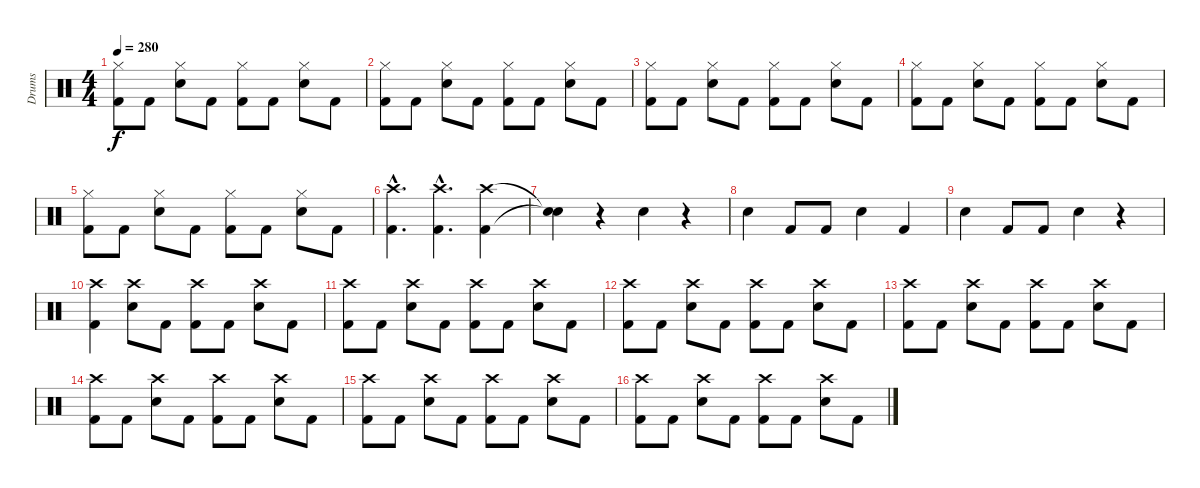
\track ("Drums" "Drums") {instrument percussion}
\staff {score}
\articulation defaults
\ts (4 4)
\tempo 280
\clef neutral
\ks c
("Hi-Hat (closed)" "Kick (hit) 2").8{dy f} "Kick (hit) 2".8 ("Hi-Hat (closed)" "Snare (hit) 2").8 "Kick (hit) 2".8 ("Hi-Hat (closed)" "Kick (hit) 2").8 "Kick (hit) 2".8 ("Hi-Hat (closed)" "Snare (hit) 2").8 "Kick (hit) 2".8 |
("Hi-Hat (closed)" "Kick (hit) 2").8 "Kick (hit) 2".8 ("Hi-Hat (closed)" "Snare (hit) 2").8 "Kick (hit) 2".8 ("Hi-Hat (closed)" "Kick (hit) 2").8 "Kick (hit) 2".8 ("Hi-Hat (closed)" "Snare (hit) 2").8 "Kick (hit) 2".8 |
("Hi-Hat (closed)" "Kick (hit) 2").8 "Kick (hit) 2".8 ("Hi-Hat (closed)" "Snare (hit) 2").8 "Kick (hit) 2".8 ("Hi-Hat (closed)" "Kick (hit) 2").8 "Kick (hit) 2".8 ("Hi-Hat (closed)" "Snare (hit) 2").8 "Kick (hit) 2".8 |
("Hi-Hat (closed)" "Kick (hit) 2").8 "Kick (hit) 2".8 ("Hi-Hat (closed)" "Snare (hit) 2").8 "Kick (hit) 2".8 ("Hi-Hat (closed)" "Kick (hit) 2").8 "Kick (hit) 2".8 ("Hi-Hat (closed)" "Snare (hit) 2").8 "Kick (hit) 2".8 |
("Hi-Hat (closed)" "Kick (hit) 2").8 "Kick (hit) 2".8 ("Hi-Hat (closed)" "Snare (hit) 2").8 "Kick (hit) 2".8 ("Hi-Hat (closed)" "Kick (hit) 2").8 "Kick (hit) 2".8 ("Hi-Hat (closed)" "Snare (hit) 2").8 "Kick (hit) 2".8 |
("Kick (hit) 2"{hac} "Crash high (hit)"{hac}).4{d} ("Kick (hit) 2"{hac} "Crash high (hit)"{hac}).4{d} ("Kick (hit) 2" "Crash high (hit)").4 |
("Snare (hit)"{t} "Snare (hit)"{t}).4 r.4 "Snare (hit) 2".4 r.4 |
"Snare (hit) 2".4 "Kick (hit) 2".8 "Kick (hit) 2".8 "Snare (hit) 2".4 "Kick (hit) 2".4 |
"Snare (hit) 2".4 "Kick (hit) 2".8 "Kick (hit) 2".8 "Snare (hit) 2".4 r.4 |
("Crash high (hit)" "Kick (hit) 2").4 ("Crash high (hit)" "Snare (hit) 2").8 "Kick (hit) 2".8 ("Crash high (hit)" "Kick (hit) 2").8 "Kick (hit) 2".8 ("Crash high (hit)" "Snare (hit) 2").8 "Kick (hit) 2".8 |
("Crash high (hit)" "Kick (hit) 2").8 "Kick (hit) 2".8 ("Crash high (hit)" "Snare (hit) 2").8 "Kick (hit) 2".8 ("Crash high (hit)" "Kick (hit) 2").8 "Kick (hit) 2".8 ("Crash high (hit)" "Snare (hit) 2").8 "Kick (hit) 2".8 |
("Crash high (hit)" "Kick (hit) 2").8 "Kick (hit) 2".8 ("Crash high (hit)" "Snare (hit) 2").8 "Kick (hit) 2".8 ("Crash high (hit)" "Kick (hit) 2").8 "Kick (hit) 2".8 ("Crash high (hit)" "Snare (hit) 2").8 "Kick (hit) 2".8 |
("Crash high (hit)" "Kick (hit) 2").8 "Kick (hit) 2".8 ("Crash high (hit)" "Snare (hit) 2").8 "Kick (hit) 2".8 ("Crash high (hit)" "Kick (hit) 2").8 "Kick (hit) 2".8 ("Crash high (hit)" "Snare (hit) 2").8 "Kick (hit) 2".8 |
("Crash high (hit)" "Kick (hit) 2").8 "Kick (hit) 2".8 ("Crash high (hit)" "Snare (hit) 2").8 "Kick (hit) 2".8 ("Crash high (hit)" "Kick (hit) 2").8 "Kick (hit) 2".8 ("Crash high (hit)" "Snare (hit) 2").8 "Kick (hit) 2".8 |
("Crash high (hit)" "Kick (hit) 2").8 "Kick (hit) 2".8 ("Crash high (hit)" "Snare (hit) 2").8 "Kick (hit) 2".8 ("Crash high (hit)" "Kick (hit) 2").8 "Kick (hit) 2".8 ("Crash high (hit)" "Snare (hit) 2").8 "Kick (hit) 2".8 |
("Crash high (hit)" "Kick (hit) 2").8 "Kick (hit) 2".8 ("Crash high (hit)" "Snare (hit) 2").8 "Kick (hit) 2".8 ("Crash high (hit)" "Kick (hit) 2").8 "Kick (hit) 2".8 ("Crash high (hit)" "Snare (hit) 2").8 "Kick (hit) 2".8
